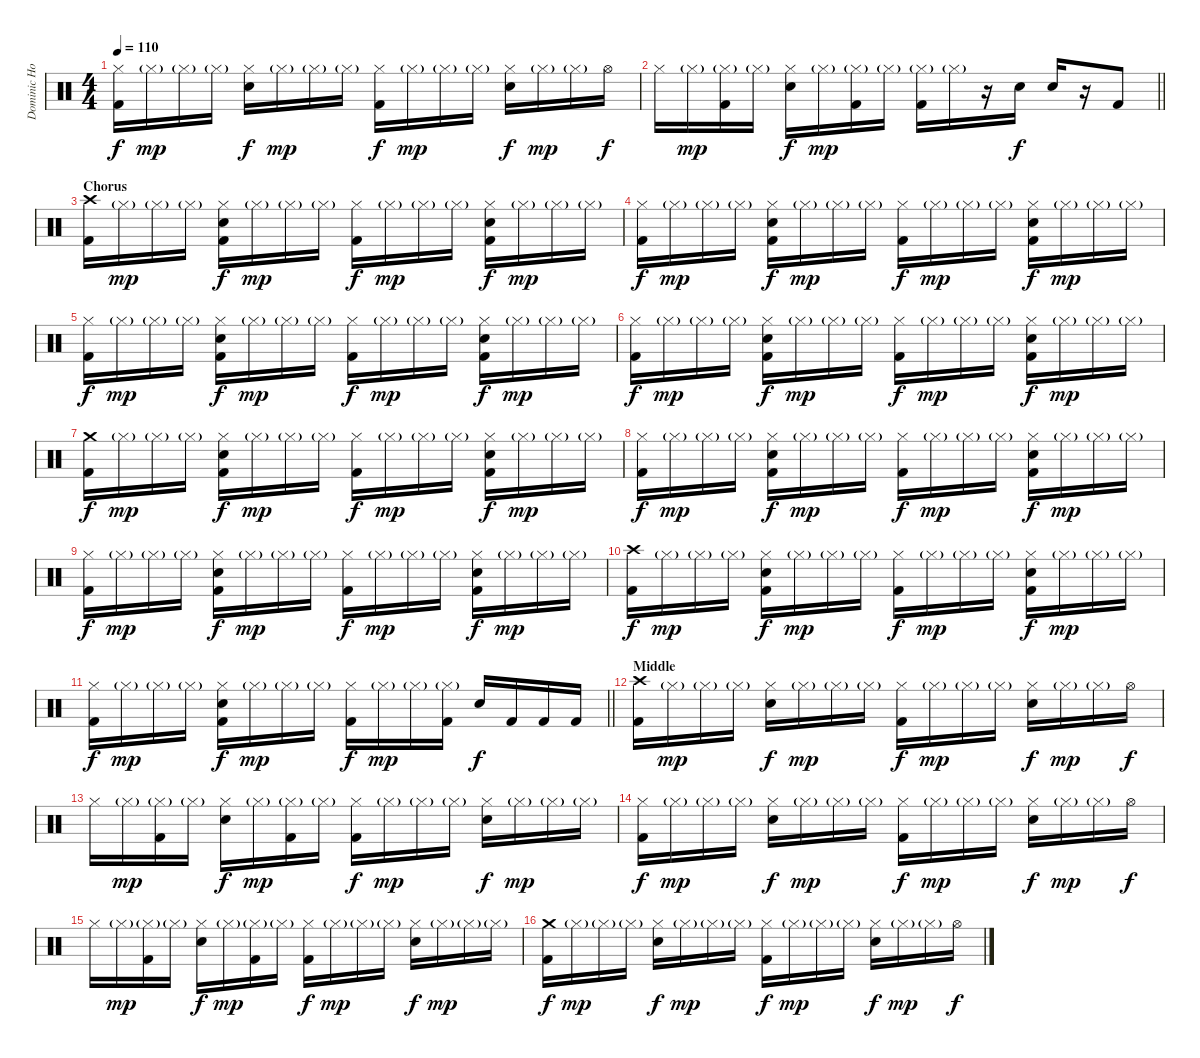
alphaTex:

\track ("Dominic Howard (Drums)" "Dominic Ho") {instrument percussion}
\staff {score}
\articulation defaults
\ts (4 4)
\tempo 110
\clef neutral
\ks c
("Hi-Hat (closed)" "Kick (hit) 2").16{dy f} "Hi-Hat (closed)"{g}.16{dy mp} "Hi-Hat (closed)"{g}.16 "Hi-Hat (closed)"{g}.16 ("Hi-Hat (closed)" "Snare (hit) 2").16{dy f} "Hi-Hat (closed)"{g}.16{dy mp} "Hi-Hat (closed)"{g}.16 "Hi-Hat (closed)"{g}.16 ("Hi-Hat (closed)" "Kick (hit) 2").16{dy f} "Hi-Hat (closed)"{g}.16{dy mp} "Hi-Hat (closed)"{g}.16 "Hi-Hat (closed)"{g}.16 ("Hi-Hat (closed)" "Snare (hit) 2").16{dy f} "Hi-Hat (closed)"{g}.16{dy mp} "Hi-Hat (closed)"{g}.16 "Hi-Hat (open)".16{dy f} |
\barLineRight lightlight "Hi-Hat (closed)".16 "Hi-Hat (closed)"{g}.16{dy mp}
("Hi-Hat (closed)"{g} "Kick (hit) 2").16 "Hi-Hat (closed)"{g}.16 ("Hi-Hat (closed)" "Snare (hit) 2").16{dy f} "Hi-Hat (closed)"{g}.16{dy mp} ("Hi-Hat (closed)"{g} "Kick (hit) 2").16 "Hi-Hat (closed)"{g}.16 ("Hi-Hat (closed)"{g} "Kick (hit) 2").16 "Hi-Hat (closed)"{g}.16 r.16 "Snare (hit) 2".16{dy f} "Snare (hit) 2".16 r.16 "Kick (hit) 2".8 |
\section ("" "Chorus")
("Crash high (hit)" "Kick (hit) 2").16 "Hi-Hat (closed)"{g}.16{dy mp} "Hi-Hat (closed)"{g}.16 "Hi-Hat (closed)"{g}.16 ("Hi-Hat (closed)" "Snare (hit) 2" "Kick (hit) 2").16{dy f} "Hi-Hat (closed)"{g}.16{dy mp} "Hi-Hat (closed)"{g}.16 "Hi-Hat (closed)"{g}.16 ("Hi-Hat (closed)" "Kick (hit) 2").16{dy f} "Hi-Hat (closed)"{g}.16{dy mp} "Hi-Hat (closed)"{g}.16 "Hi-Hat (closed)"{g}.16 ("Hi-Hat (closed)" "Snare (hit) 2" "Kick (hit) 2").16{dy f} "Hi-Hat (closed)"{g}.16{dy mp} "Hi-Hat (closed)"{g}.16 "Hi-Hat (closed)"{g}.16 |
("Hi-Hat (closed)" "Kick (hit) 2").16{dy f} "Hi-Hat (closed)"{g}.16{dy mp} "Hi-Hat (closed)"{g}.16 "Hi-Hat (closed)"{g}.16 ("Hi-Hat (closed)" "Snare (hit) 2" "Kick (hit) 2").16{dy f} "Hi-Hat (closed)"{g}.16{dy mp} "Hi-Hat (closed)"{g}.16 "Hi-Hat (closed)"{g}.16 ("Hi-Hat (closed)" "Kick (hit) 2").16{dy f} "Hi-Hat (closed)"{g}.16{dy mp} "Hi-Hat (closed)"{g}.16 "Hi-Hat (closed)"{g}.16 ("Hi-Hat (closed)" "Snare (hit) 2" "Kick (hit) 2").16{dy f} "Hi-Hat (closed)"{g}.16{dy mp} "Hi-Hat (closed)"{g}.16 "Hi-Hat (closed)"{g}.16 |
("Hi-Hat (closed)" "Kick (hit) 2").16{dy f} "Hi-Hat (closed)"{g}.16{dy mp} "Hi-Hat (closed)"{g}.16 "Hi-Hat (closed)"{g}.16 ("Hi-Hat (closed)" "Snare (hit) 2" "Kick (hit) 2").16{dy f} "Hi-Hat (closed)"{g}.16{dy mp} "Hi-Hat (closed)"{g}.16 "Hi-Hat (closed)"{g}.16 ("Hi-Hat (closed)" "Kick (hit) 2").16{dy f} "Hi-Hat (closed)"{g}.16{dy mp} "Hi-Hat (closed)"{g}.16 "Hi-Hat (closed)"{g}.16 ("Hi-Hat (closed)" "Snare (hit) 2" "Kick (hit) 2").16{dy f} "Hi-Hat (closed)"{g}.16{dy mp} "Hi-Hat (closed)"{g}.16 "Hi-Hat (closed)"{g}.16 |
("Hi-Hat (closed)" "Kick (hit) 2").16{dy f} "Hi-Hat (closed)"{g}.16{dy mp} "Hi-Hat (closed)"{g}.16 "Hi-Hat (closed)"{g}.16 ("Hi-Hat (closed)" "Snare (hit) 2" "Kick (hit) 2").16{dy f} "Hi-Hat (closed)"{g}.16{dy mp} "Hi-Hat (closed)"{g}.16 "Hi-Hat (closed)"{g}.16 ("Hi-Hat (closed)" "Kick (hit) 2").16{dy f} "Hi-Hat (closed)"{g}.16{dy mp} "Hi-Hat (closed)"{g}.16 "Hi-Hat (closed)"{g}.16 ("Hi-Hat (closed)" "Snare (hit) 2" "Kick (hit) 2").16{dy f} "Hi-Hat (closed)"{g}.16{dy mp} "Hi-Hat (closed)"{g}.16 "Hi-Hat (closed)"{g}.16 |
("Crash medium (hit)" "Kick (hit) 2").16{dy f} "Hi-Hat (closed)"{g}.16{dy mp} "Hi-Hat (closed)"{g}.16 "Hi-Hat (closed)"{g}.16 ("Hi-Hat (closed)" "Snare (hit) 2" "Kick (hit) 2").16{dy f} "Hi-Hat (closed)"{g}.16{dy mp} "Hi-Hat (closed)"{g}.16 "Hi-Hat (closed)"{g}.16 ("Hi-Hat (closed)" "Kick (hit) 2").16{dy f} "Hi-Hat (closed)"{g}.16{dy mp} "Hi-Hat (closed)"{g}.16 "Hi-Hat (closed)"{g}.16 ("Hi-Hat (closed)" "Snare (hit) 2" "Kick (hit) 2").16{dy f} "Hi-Hat (closed)"{g}.16{dy mp} "Hi-Hat (closed)"{g}.16 "Hi-Hat (closed)"{g}.16 |
("Hi-Hat (closed)" "Kick (hit) 2").16{dy f} "Hi-Hat (closed)"{g}.16{dy mp} "Hi-Hat (closed)"{g}.16 "Hi-Hat (closed)"{g}.16 ("Hi-Hat (closed)" "Snare (hit) 2" "Kick (hit) 2").16{dy f} "Hi-Hat (closed)"{g}.16{dy mp} "Hi-Hat (closed)"{g}.16 "Hi-Hat (closed)"{g}.16 ("Hi-Hat (closed)" "Kick (hit) 2").16{dy f} "Hi-Hat (closed)"{g}.16{dy mp} "Hi-Hat (closed)"{g}.16 "Hi-Hat (closed)"{g}.16 ("Hi-Hat (closed)" "Snare (hit) 2" "Kick (hit) 2").16{dy f} "Hi-Hat (closed)"{g}.16{dy mp} "Hi-Hat (closed)"{g}.16 "Hi-Hat (closed)"{g}.16 |
("Hi-Hat (closed)" "Kick (hit) 2").16{dy f} "Hi-Hat (closed)"{g}.16{dy mp} "Hi-Hat (closed)"{g}.16 "Hi-Hat (closed)"{g}.16 ("Hi-Hat (closed)" "Snare (hit) 2" "Kick (hit) 2").16{dy f} "Hi-Hat (closed)"{g}.16{dy mp} "Hi-Hat (closed)"{g}.16 "Hi-Hat (closed)"{g}.16 ("Hi-Hat (closed)" "Kick (hit) 2").16{dy f} "Hi-Hat (closed)"{g}.16{dy mp} "Hi-Hat (closed)"{g}.16 "Hi-Hat (closed)"{g}.16 ("Hi-Hat (closed)" "Snare (hit) 2" "Kick (hit) 2").16{dy f} "Hi-Hat (closed)"{g}.16{dy mp} "Hi-Hat (closed)"{g}.16 "Hi-Hat (closed)"{g}.16 |
("Crash high (hit)" "Kick (hit) 2").16{dy f} "Hi-Hat (closed)"{g}.16{dy mp} "Hi-Hat (closed)"{g}.16 "Hi-Hat (closed)"{g}.16 ("Hi-Hat (closed)" "Snare (hit) 2" "Kick (hit) 2").16{dy f} "Hi-Hat (closed)"{g}.16{dy mp} "Hi-Hat (closed)"{g}.16 "Hi-Hat (closed)"{g}.16 ("Hi-Hat (closed)" "Kick (hit) 2").16{dy f} "Hi-Hat (closed)"{g}.16{dy mp} "Hi-Hat (closed)"{g}.16 "Hi-Hat (closed)"{g}.16 ("Hi-Hat (closed)" "Snare (hit) 2" "Kick (hit) 2").16{dy f} "Hi-Hat (closed)"{g}.16{dy mp} "Hi-Hat (closed)"{g}.16 "Hi-Hat (closed)"{g}.16 |
\barLineRight lightlight
("Hi-Hat (closed)" "Kick (hit) 2").16{dy f} "Hi-Hat (closed)"{g}.16{dy mp} "Hi-Hat (closed)"{g}.16 "Hi-Hat (closed)"{g}.16 ("Hi-Hat (closed)" "Snare (hit) 2" "Kick (hit) 2").16{dy f} "Hi-Hat (closed)"{g}.16{dy mp} "Hi-Hat (closed)"{g}.16 "Hi-Hat (closed)"{g}.16 ("Hi-Hat (closed)" "Kick (hit) 2").16{dy f} "Hi-Hat (closed)"{g}.16{dy mp} "Hi-Hat (closed)"{g}.16 ("Hi-Hat (closed)"{g} "Kick (hit) 2").16 "Snare (hit) 2".16{dy f} "Kick (hit) 2".16 "Kick (hit) 2".16 "Kick (hit) 2".16 |
\section ("" "Middle")
("Crash high (hit)" "Kick (hit) 2").16 "Hi-Hat (closed)"{g}.16{dy mp} "Hi-Hat (closed)"{g}.16 "Hi-Hat (closed)"{g}.16 ("Hi-Hat (closed)" "Snare (hit) 2").16{dy f} "Hi-Hat (closed)"{g}.16{dy mp} "Hi-Hat (closed)"{g}.16 "Hi-Hat (closed)"{g}.16 ("Hi-Hat (closed)" "Kick (hit) 2").16{dy f} "Hi-Hat (closed)"{g}.16{dy mp} "Hi-Hat (closed)"{g}.16 "Hi-Hat (closed)"{g}.16 ("Hi-Hat (closed)" "Snare (hit) 2").16{dy f} "Hi-Hat (closed)"{g}.16{dy mp} "Hi-Hat (closed)"{g}.16 "Hi-Hat (open)".16{dy f} |
"Hi-Hat (closed)".16 "Hi-Hat (closed)"{g}.16{dy mp} ("Hi-Hat (closed)"{g} "Kick (hit) 2").16 "Hi-Hat (closed)"{g}.16 ("Hi-Hat (closed)" "Snare (hit) 2").16{dy f} "Hi-Hat (closed)"{g}.16{dy mp} ("Hi-Hat (closed)"{g} "Kick (hit) 2").16 "Hi-Hat (closed)"{g}.16 ("Hi-Hat (closed)" "Kick (hit) 2").16{dy f} "Hi-Hat (closed)"{g}.16{dy mp} "Hi-Hat (closed)"{g}.16 "Hi-Hat (closed)"{g}.16 ("Hi-Hat (closed)" "Snare (hit) 2").16{dy f} "Hi-Hat (closed)"{g}.16{dy mp} "Hi-Hat (closed)"{g}.16 "Hi-Hat (closed)"{g}.16 |
("Hi-Hat (closed)" "Kick (hit) 2").16{dy f} "Hi-Hat (closed)"{g}.16{dy mp} "Hi-Hat (closed)"{g}.16 "Hi-Hat (closed)"{g}.16 ("Hi-Hat (closed)" "Snare (hit) 2").16{dy f} "Hi-Hat (closed)"{g}.16{dy mp} "Hi-Hat (closed)"{g}.16 "Hi-Hat (closed)"{g}.16 ("Hi-Hat (closed)" "Kick (hit) 2").16{dy f} "Hi-Hat (closed)"{g}.16{dy mp} "Hi-Hat (closed)"{g}.16 "Hi-Hat (closed)"{g}.16 ("Hi-Hat (closed)" "Snare (hit) 2").16{dy f} "Hi-Hat (closed)"{g}.16{dy mp} "Hi-Hat (closed)"{g}.16 "Hi-Hat (open)".16{dy f} |
"Hi-Hat (closed)".16 "Hi-Hat (closed)"{g}.16{dy mp} ("Hi-Hat (closed)"{g} "Kick (hit) 2").16 "Hi-Hat (closed)"{g}.16 ("Hi-Hat (closed)" "Snare (hit) 2").16{dy f} "Hi-Hat (closed)"{g}.16{dy mp} ("Hi-Hat (closed)"{g} "Kick (hit) 2").16 "Hi-Hat (closed)"{g}.16 ("Hi-Hat (closed)" "Kick (hit) 2").16{dy f} "Hi-Hat (closed)"{g}.16{dy mp} "Hi-Hat (closed)"{g}.16 "Hi-Hat (closed)"{g}.16 ("Hi-Hat (closed)" "Snare (hit) 2").16{dy f} "Hi-Hat (closed)"{g}.16{dy mp} "Hi-Hat (closed)"{g}.16 "Hi-Hat (closed)"{g}.16 |
("Crash medium (hit)" "Kick (hit) 2").16{dy f} "Hi-Hat (closed)"{g}.16{dy mp} "Hi-Hat (closed)"{g}.16 "Hi-Hat (closed)"{g}.16 ("Hi-Hat (closed)" "Snare (hit) 2").16{dy f} "Hi-Hat (closed)"{g}.16{dy mp} "Hi-Hat (closed)"{g}.16 "Hi-Hat (closed)"{g}.16 ("Hi-Hat (closed)" "Kick (hit) 2").16{dy f} "Hi-Hat (closed)"{g}.16{dy mp} "Hi-Hat (closed)"{g}.16 "Hi-Hat (closed)"{g}.16 ("Hi-Hat (closed)" "Snare (hit) 2").16{dy f} "Hi-Hat (closed)"{g}.16{dy mp} "Hi-Hat (closed)"{g}.16 "Hi-Hat (open)".16{dy f}
